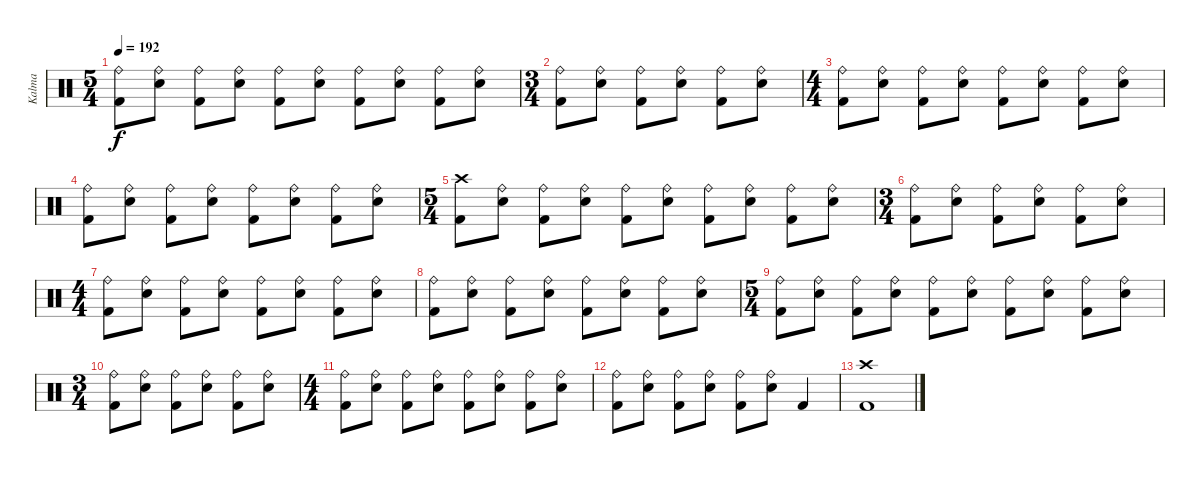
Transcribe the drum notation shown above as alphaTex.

\track ("Kalma" "Kalma") {instrument percussion}
\staff {score}
\articulation defaults
\ts (5 4)
\tempo 192
\clef neutral
\ks c
("Ride (bell)" "Kick (hit) 2").8{dy f} ("Ride (bell)" "Snare (hit) 2").8 ("Ride (bell)" "Kick (hit) 2").8 ("Ride (bell)" "Snare (hit) 2").8 ("Ride (bell)" "Kick (hit) 2").8 ("Ride (bell)" "Snare (hit) 2").8 ("Ride (bell)" "Kick (hit) 2").8 ("Ride (bell)" "Snare (hit) 2").8 ("Ride (bell)" "Kick (hit) 2").8 ("Ride (bell)" "Snare (hit) 2").8 |
\ts (3 4)
("Ride (bell)" "Kick (hit) 2").8 ("Ride (bell)" "Snare (hit) 2").8 ("Ride (bell)" "Kick (hit) 2").8 ("Ride (bell)" "Snare (hit) 2").8 ("Ride (bell)" "Kick (hit) 2").8 ("Ride (bell)" "Snare (hit) 2").8 |
\ts (4 4)
("Ride (bell)" "Kick (hit) 2").8 ("Ride (bell)" "Snare (hit) 2").8 ("Ride (bell)" "Kick (hit) 2").8 ("Ride (bell)" "Snare (hit) 2").8 ("Ride (bell)" "Kick (hit) 2").8 ("Ride (bell)" "Snare (hit) 2").8 ("Ride (bell)" "Kick (hit) 2").8 ("Ride (bell)" "Snare (hit) 2").8 |
("Ride (bell)" "Kick (hit) 2").8 ("Ride (bell)" "Snare (hit) 2").8 ("Ride (bell)" "Kick (hit) 2").8 ("Ride (bell)" "Snare (hit) 2").8 ("Ride (bell)" "Kick (hit) 2").8 ("Ride (bell)" "Snare (hit) 2").8 ("Ride (bell)" "Kick (hit) 2").8 ("Ride (bell)" "Snare (hit) 2").8 |
\ts (5 4)
("Crash high (hit)" "Kick (hit) 2").8 ("Ride (bell)" "Snare (hit) 2").8 ("Ride (bell)" "Kick (hit) 2").8 ("Ride (bell)" "Snare (hit) 2").8 ("Ride (bell)" "Kick (hit) 2").8 ("Ride (bell)" "Snare (hit) 2").8 ("Ride (bell)" "Kick (hit) 2").8 ("Ride (bell)" "Snare (hit) 2").8 ("Ride (bell)" "Kick (hit) 2").8 ("Ride (bell)" "Snare (hit) 2").8 |
\ts (3 4)
("Ride (bell)" "Kick (hit) 2").8 ("Ride (bell)" "Snare (hit) 2").8 ("Ride (bell)" "Kick (hit) 2").8 ("Ride (bell)" "Snare (hit) 2").8 ("Ride (bell)" "Kick (hit) 2").8 ("Ride (bell)" "Snare (hit) 2").8 |
\ts (4 4)
("Ride (bell)" "Kick (hit) 2").8 ("Ride (bell)" "Snare (hit) 2").8 ("Ride (bell)" "Kick (hit) 2").8 ("Ride (bell)" "Snare (hit) 2").8 ("Ride (bell)" "Kick (hit) 2").8 ("Ride (bell)" "Snare (hit) 2").8 ("Ride (bell)" "Kick (hit) 2").8 ("Ride (bell)" "Snare (hit) 2").8 |
("Ride (bell)" "Kick (hit) 2").8 ("Ride (bell)" "Snare (hit) 2").8 ("Ride (bell)" "Kick (hit) 2").8 ("Ride (bell)" "Snare (hit) 2").8 ("Ride (bell)" "Kick (hit) 2").8 ("Ride (bell)" "Snare (hit) 2").8 ("Ride (bell)" "Kick (hit) 2").8 ("Ride (bell)" "Snare (hit) 2").8 |
\ts (5 4)
("Ride (bell)" "Kick (hit) 2").8 ("Ride (bell)" "Snare (hit) 2").8 ("Ride (bell)" "Kick (hit) 2").8 ("Ride (bell)" "Snare (hit) 2").8 ("Ride (bell)" "Kick (hit) 2").8 ("Ride (bell)" "Snare (hit) 2").8 ("Ride (bell)" "Kick (hit) 2").8 ("Ride (bell)" "Snare (hit) 2").8 ("Ride (bell)" "Kick (hit) 2").8 ("Ride (bell)" "Snare (hit) 2").8 |
\ts (3 4)
("Ride (bell)" "Kick (hit) 2").8 ("Ride (bell)" "Snare (hit) 2").8 ("Ride (bell)" "Kick (hit) 2").8 ("Ride (bell)" "Snare (hit) 2").8 ("Ride (bell)" "Kick (hit) 2").8 ("Ride (bell)" "Snare (hit) 2").8 |
\ts (4 4)
("Ride (bell)" "Kick (hit) 2").8 ("Ride (bell)" "Snare (hit) 2").8 ("Ride (bell)" "Kick (hit) 2").8 ("Ride (bell)" "Snare (hit) 2").8 ("Ride (bell)" "Kick (hit) 2").8 ("Ride (bell)" "Snare (hit) 2").8 ("Ride (bell)" "Kick (hit) 2").8 ("Ride (bell)" "Snare (hit) 2").8 |
("Ride (bell)" "Kick (hit) 2").8 ("Ride (bell)" "Snare (hit) 2").8 ("Ride (bell)" "Kick (hit) 2").8 ("Ride (bell)" "Snare (hit) 2").8 ("Ride (bell)" "Kick (hit) 2").8 ("Ride (bell)" "Snare (hit) 2").8 "Kick (hit) 2".4 |
("Crash high (hit)" "Kick (hit) 2").1
